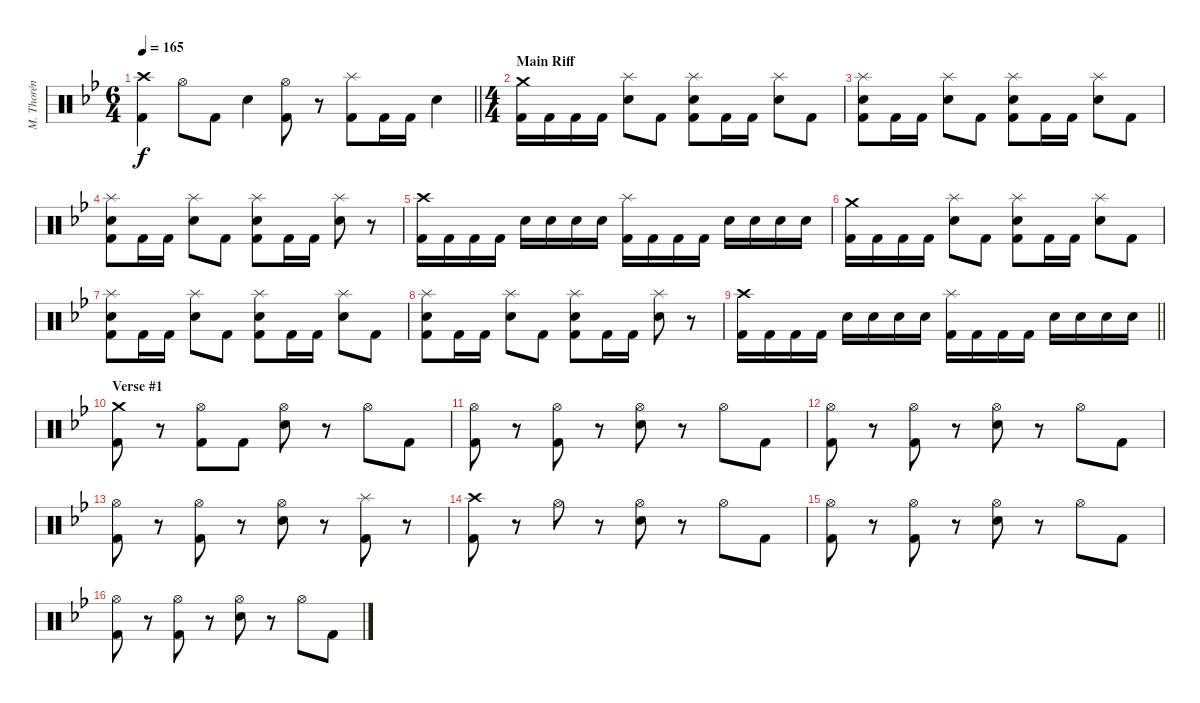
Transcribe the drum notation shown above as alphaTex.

\track ("M. Thorén (Drums)" "M. Thorén ") {instrument percussion}
\staff {score}
\articulation defaults
\ts (6 4)
\tempo 165
\clef neutral
\barLineRight lightlight
\ks gminor
("Crash high (hit)" "Kick (hit) 2").4{dy f} "Hi-Hat (open)".8 "Kick (hit) 2".8 "Electric Snare (hit)".4 ("Hi-Hat (open)" "Kick (hit) 2").8 r.8 ("Splash (hit)" "Kick (hit) 2").8 "Kick (hit) 2".16 "Kick (hit) 2".16 "Electric Snare (hit)".4 |
\ts (4 4)
\section ("" "Main Riff")
("Crash medium (hit)" "Kick (hit) 2").16 "Kick (hit) 2".16 "Kick (hit) 2".16 "Kick (hit) 2".16 ("Splash (hit)" "Electric Snare (hit)").8 "Kick (hit) 2".8 ("Splash (hit)" "Electric Snare (hit)" "Kick (hit) 2").8 "Kick (hit) 2".16 "Kick (hit) 2".16 ("Splash (hit)" "Electric Snare (hit)").8 "Kick (hit) 2".8 |
("Splash (hit)" "Electric Snare (hit)" "Kick (hit) 2").8 "Kick (hit) 2".16 "Kick (hit) 2".16 ("Splash (hit)" "Electric Snare (hit)").8 "Kick (hit) 2".8 ("Splash (hit)" "Electric Snare (hit)" "Kick (hit) 2").8 "Kick (hit) 2".16 "Kick (hit) 2".16 ("Splash (hit)" "Electric Snare (hit)").8 "Kick (hit) 2".8 |
("Splash (hit)" "Electric Snare (hit)" "Kick (hit) 2").8 "Kick (hit) 2".16 "Kick (hit) 2".16 ("Splash (hit)" "Electric Snare (hit)").8 "Kick (hit) 2".8 ("Splash (hit)" "Electric Snare (hit)" "Kick (hit) 2").8 "Kick (hit) 2".16 "Kick (hit) 2".16 ("Splash (hit)" "Electric Snare (hit)").8 r.8 |
("Crash high (hit)" "Kick (hit) 2").16 "Kick (hit) 2".16 "Kick (hit) 2".16 "Kick (hit) 2".16 "Electric Snare (hit)".16 "Electric Snare (hit)".16 "Electric Snare (hit)".16 "Electric Snare (hit)".16 ("Splash (hit)" "Kick (hit) 2").16 "Kick (hit) 2".16 "Kick (hit) 2".16 "Kick (hit) 2".16 "Electric Snare (hit)".16 "Electric Snare (hit)".16 "Electric Snare (hit)".16 "Electric Snare (hit)".16 |
("Crash medium (hit)" "Kick (hit) 2").16 "Kick (hit) 2".16 "Kick (hit) 2".16 "Kick (hit) 2".16 ("Splash (hit)" "Electric Snare (hit)").8 "Kick (hit) 2".8 ("Splash (hit)" "Electric Snare (hit)" "Kick (hit) 2").8 "Kick (hit) 2".16 "Kick (hit) 2".16 ("Splash (hit)" "Electric Snare (hit)").8 "Kick (hit) 2".8 |
("Splash (hit)" "Electric Snare (hit)" "Kick (hit) 2").8 "Kick (hit) 2".16 "Kick (hit) 2".16 ("Splash (hit)" "Electric Snare (hit)").8 "Kick (hit) 2".8 ("Splash (hit)" "Electric Snare (hit)" "Kick (hit) 2").8 "Kick (hit) 2".16 "Kick (hit) 2".16 ("Splash (hit)" "Electric Snare (hit)").8 "Kick (hit) 2".8 |
("Splash (hit)" "Electric Snare (hit)" "Kick (hit) 2").8 "Kick (hit) 2".16 "Kick (hit) 2".16 ("Splash (hit)" "Electric Snare (hit)").8 "Kick (hit) 2".8 ("Splash (hit)" "Electric Snare (hit)" "Kick (hit) 2").8 "Kick (hit) 2".16 "Kick (hit) 2".16 ("Splash (hit)" "Electric Snare (hit)").8 r.8 |
\barLineRight lightlight
("Crash high (hit)" "Kick (hit) 2").16 "Kick (hit) 2".16 "Kick (hit) 2".16 "Kick (hit) 2".16 "Electric Snare (hit)".16 "Electric Snare (hit)".16 "Electric Snare (hit)".16 "Electric Snare (hit)".16 ("Splash (hit)" "Kick (hit) 2").16 "Kick (hit) 2".16 "Kick (hit) 2".16 "Kick (hit) 2".16 "Electric Snare (hit)".16 "Electric Snare (hit)".16 "Electric Snare (hit)".16 "Electric Snare (hit)".16 |
\section ("" "Verse #1")
("Crash medium (hit)" "Kick (hit) 2").8 r.8 ("Hi-Hat (open)" "Kick (hit) 2").8 "Kick (hit) 2".8 ("Hi-Hat (open)" "Electric Snare (hit)").8 r.8 "Hi-Hat (open)".8 "Kick (hit) 2".8 |
("Hi-Hat (open)" "Kick (hit) 2").8 r.8 ("Hi-Hat (open)" "Kick (hit) 2").8 r.8 ("Hi-Hat (open)" "Electric Snare (hit)").8 r.8 "Hi-Hat (open)".8 "Kick (hit) 2".8 |
("Hi-Hat (open)" "Kick (hit) 2").8 r.8 ("Hi-Hat (open)" "Kick (hit) 2").8 r.8 ("Hi-Hat (open)" "Electric Snare (hit)").8 r.8 "Hi-Hat (open)".8 "Kick (hit) 2".8 |
("Hi-Hat (open)" "Kick (hit) 2").8 r.8 ("Hi-Hat (open)" "Kick (hit) 2").8 r.8 ("Hi-Hat (open)" "Electric Snare (hit)").8 r.8 ("Splash (hit)" "Kick (hit) 2").8 r.8 |
("Crash high (hit)" "Kick (hit) 2").8 r.8 "Hi-Hat (open)".8 r.8 ("Hi-Hat (open)" "Electric Snare (hit)").8 r.8 "Hi-Hat (open)".8 "Kick (hit) 2".8 |
("Hi-Hat (open)" "Kick (hit) 2").8 r.8 ("Hi-Hat (open)" "Kick (hit) 2").8 r.8 ("Hi-Hat (open)" "Electric Snare (hit)").8 r.8 "Hi-Hat (open)".8 "Kick (hit) 2".8 |
("Hi-Hat (open)" "Kick (hit) 2").8 r.8 ("Hi-Hat (open)" "Kick (hit) 2").8 r.8 ("Hi-Hat (open)" "Electric Snare (hit)").8 r.8 "Hi-Hat (open)".8 "Kick (hit) 2".8
